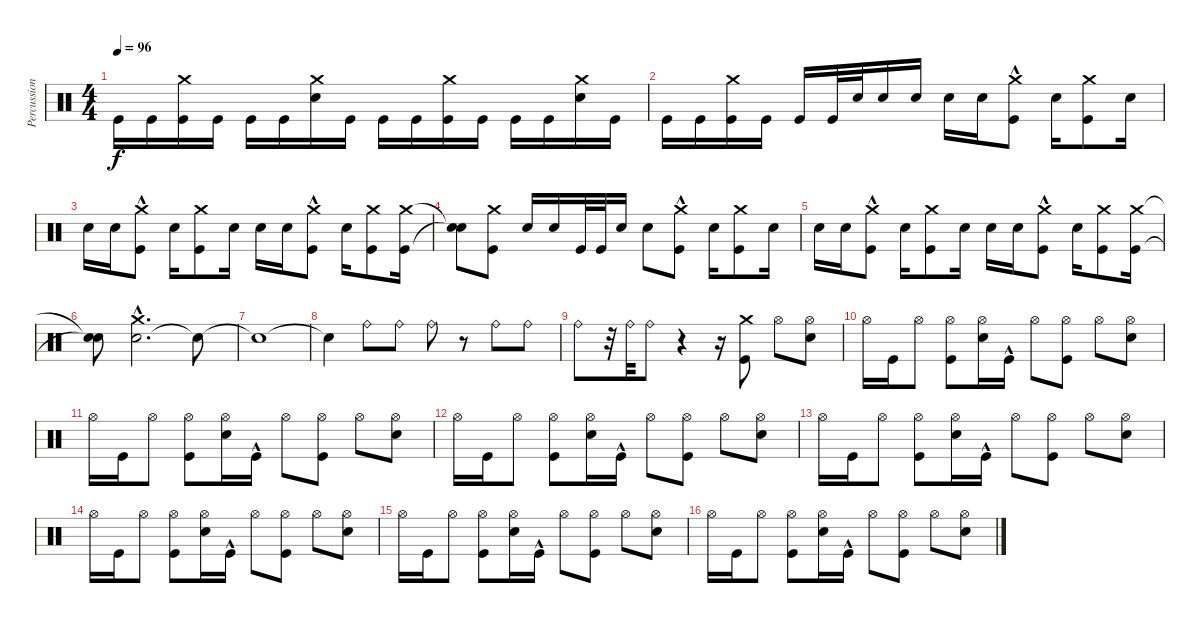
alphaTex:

\track ("Percussion" "Percussion") {instrument percussion}
\staff {score}
\articulation defaults
\ts (4 4)
\tempo 96
\clef neutral
\ks c "Kick (hit)".16{dy f} "Kick (hit)".16
("Kick (hit)" "Crash medium (hit)").16 "Kick (hit)".16 "Kick (hit)".16 "Kick (hit)".16 ("Electric Snare (hit)" "Crash medium (hit)").16 "Kick (hit)".16 "Kick (hit)".16 "Kick (hit)".16 ("Kick (hit)" "Crash medium (hit)").16 "Kick (hit)".16 "Kick (hit)".16 "Kick (hit)".16 ("Electric Snare (hit)" "Crash medium (hit)").16 "Kick (hit)".16 |
"Kick (hit)".16 "Kick (hit)".16 ("Kick (hit)" "Crash medium (hit)").16 "Kick (hit)".16 "Kick (hit)".16 "Kick (hit)".32 "Electric Snare (hit)".32 "Electric Snare (hit)".16 "Electric Snare (hit)".16 "Electric Snare (hit)".16 "Electric Snare (hit)".16 ("Kick (hit)"{hac} "Crash medium (hit)").8 "Electric Snare (hit)".16 ("Kick (hit)" "Crash medium (hit)").8 "Electric Snare (hit)".16 |
"Electric Snare (hit)".16 "Electric Snare (hit)".16 ("Kick (hit)"{hac} "Crash medium (hit)").8 "Electric Snare (hit)".16 ("Crash medium (hit)" "Kick (hit)").8 "Electric Snare (hit)".16 "Electric Snare (hit)".16 "Electric Snare (hit)".16 ("Kick (hit)"{hac} "Crash medium (hit)").8 "Electric Snare (hit)".16 ("Kick (hit)" "Crash medium (hit)").8 ("Kick (hit)" "Crash medium (hit)").16 |
("Snare (hit)"{t} "Snare (hit)"{t}).8 ("Kick (hit)" "Crash medium (hit)").8 "Electric Snare (hit)".16 "Electric Snare (hit)".16 "Kick (hit)".32 "Kick (hit)".32 "Electric Snare (hit)".16 "Electric Snare (hit)".8 ("Kick (hit)"{hac} "Crash medium (hit)").8 "Electric Snare (hit)".16 ("Kick (hit)" "Crash medium (hit)").8 "Electric Snare (hit)".16 |
"Electric Snare (hit)".16 "Electric Snare (hit)".16 ("Kick (hit)"{hac} "Crash medium (hit)").8 "Electric Snare (hit)".16 ("Crash medium (hit)" "Kick (hit)").8 "Electric Snare (hit)".16 "Electric Snare (hit)".16 "Electric Snare (hit)".16 ("Kick (hit)"{hac} "Crash medium (hit)").8 "Electric Snare (hit)".16 ("Kick (hit)" "Crash medium (hit)").8 ("Kick (hit)" "Crash medium (hit)").16 |
("Snare (hit)"{t} "Snare (hit)"{t}).8 ("Electric Snare (hit)" "Crash medium (hit)"{hac}).2{d} "Snare (hit)"{t}.8 |
"Snare (hit)"{t}.1 |
"Snare (hit)"{t}.4 "Ride (bell)".8 "Ride (bell)".8 "Ride (bell)".8 r.8 "Ride (bell)".8 "Ride (bell)".8 |
"Ride (bell)".8 r.32 "Ride (bell)".32 "Ride (bell)".8 r.4 r.16 ("Kick (hit)" "Crash medium (hit)").8 "Hi-Hat (open)".8 ("Electric Snare (hit)" "Hi-Hat (open)").8 |
"Hi-Hat (open)".16 "Kick (hit)".16 "Hi-Hat (open)".8 ("Kick (hit)" "Hi-Hat (open)").8 ("Electric Snare (hit)" "Hi-Hat (open)").16 "Kick (hit)"{hac}.16 "Hi-Hat (open)".8 ("Kick (hit)" "Hi-Hat (open)").8 "Hi-Hat (open)".8 ("Electric Snare (hit)" "Hi-Hat (open)").8 |
"Hi-Hat (open)".16 "Kick (hit)".16 "Hi-Hat (open)".8 ("Kick (hit)" "Hi-Hat (open)").8 ("Electric Snare (hit)" "Hi-Hat (open)").16 "Kick (hit)"{hac}.16 "Hi-Hat (open)".8 ("Kick (hit)" "Hi-Hat (open)").8 "Hi-Hat (open)".8 ("Electric Snare (hit)" "Hi-Hat (open)").8 |
"Hi-Hat (open)".16 "Kick (hit)".16 "Hi-Hat (open)".8 ("Kick (hit)" "Hi-Hat (open)").8 ("Electric Snare (hit)" "Hi-Hat (open)").16 "Kick (hit)"{hac}.16 "Hi-Hat (open)".8 ("Kick (hit)" "Hi-Hat (open)").8 "Hi-Hat (open)".8 ("Electric Snare (hit)" "Hi-Hat (open)").8 |
"Hi-Hat (open)".16 "Kick (hit)".16 "Hi-Hat (open)".8 ("Kick (hit)" "Hi-Hat (open)").8 ("Electric Snare (hit)" "Hi-Hat (open)").16 "Kick (hit)"{hac}.16 "Hi-Hat (open)".8 ("Kick (hit)" "Hi-Hat (open)").8 "Hi-Hat (open)".8 ("Electric Snare (hit)" "Hi-Hat (open)").8 |
"Hi-Hat (open)".16 "Kick (hit)".16 "Hi-Hat (open)".8 ("Kick (hit)" "Hi-Hat (open)").8 ("Electric Snare (hit)" "Hi-Hat (open)").16 "Kick (hit)"{hac}.16 "Hi-Hat (open)".8 ("Kick (hit)" "Hi-Hat (open)").8 "Hi-Hat (open)".8 ("Electric Snare (hit)" "Hi-Hat (open)").8 |
"Hi-Hat (open)".16 "Kick (hit)".16 "Hi-Hat (open)".8 ("Kick (hit)" "Hi-Hat (open)").8 ("Electric Snare (hit)" "Hi-Hat (open)").16 "Kick (hit)"{hac}.16 "Hi-Hat (open)".8 ("Kick (hit)" "Hi-Hat (open)").8 "Hi-Hat (open)".8 ("Electric Snare (hit)" "Hi-Hat (open)").8 |
"Hi-Hat (open)".16 "Kick (hit)".16 "Hi-Hat (open)".8 ("Kick (hit)" "Hi-Hat (open)").8 ("Electric Snare (hit)" "Hi-Hat (open)").16 "Kick (hit)"{hac}.16 "Hi-Hat (open)".8 ("Kick (hit)" "Hi-Hat (open)").8 "Hi-Hat (open)".8 ("Electric Snare (hit)" "Hi-Hat (open)").8
